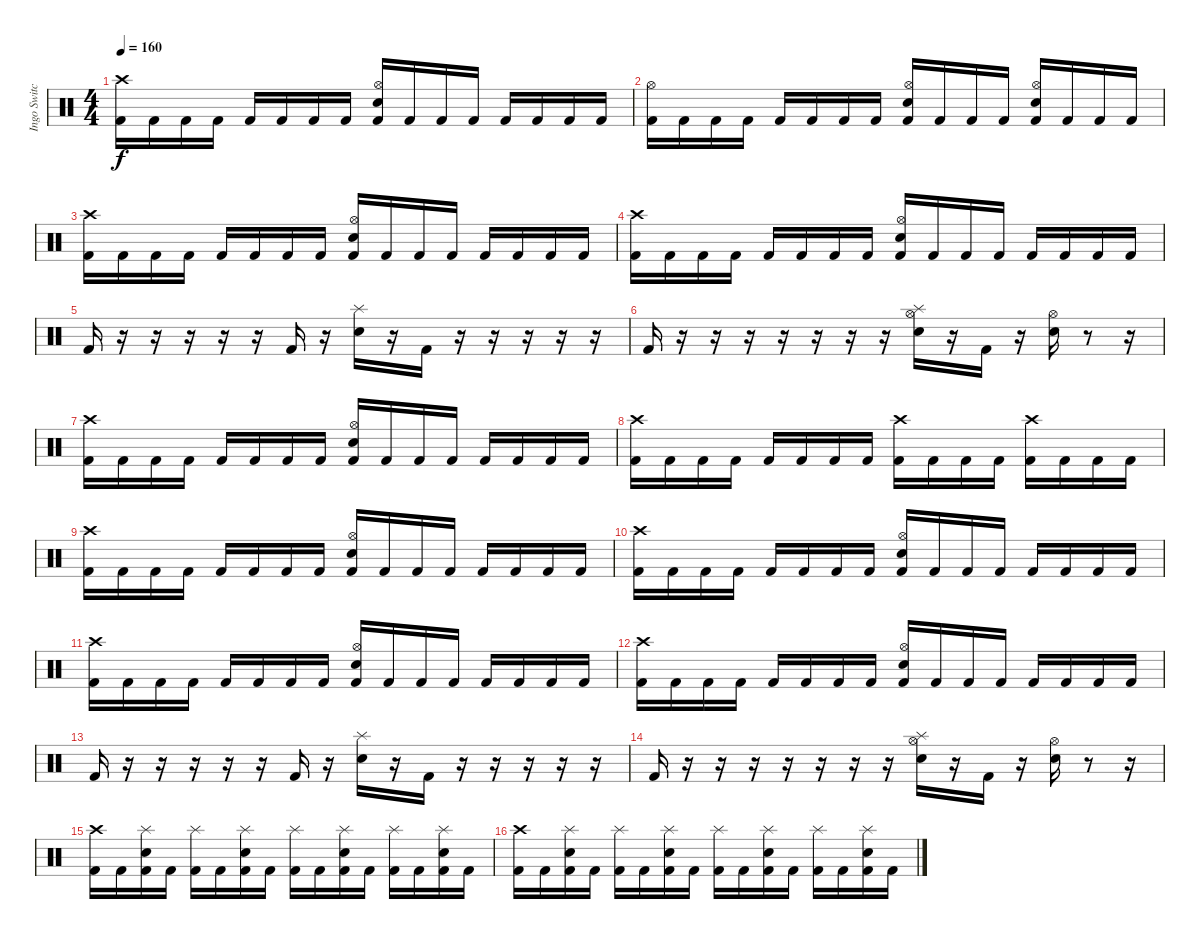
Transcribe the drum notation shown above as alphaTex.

\track ("Ingo Switchenberg" "Ingo Switc") {instrument percussion}
\staff {score}
\articulation defaults
\ts (4 4)
\tempo 160
\clef neutral
\ks c
("Crash high (hit)" "Kick (hit) 2").16{dy f} "Kick (hit) 2".16 "Kick (hit) 2".16 "Kick (hit) 2".16 "Kick (hit) 2".16 "Kick (hit) 2".16 "Kick (hit) 2".16 "Kick (hit) 2".16 ("Hi-Hat (open)" "Snare (hit) 2" "Kick (hit) 2").16 "Kick (hit) 2".16 "Kick (hit) 2".16 "Kick (hit) 2".16 "Kick (hit) 2".16 "Kick (hit) 2".16 "Kick (hit) 2".16 "Kick (hit) 2".16 |
("Hi-Hat (open)" "Kick (hit) 2").16 "Kick (hit) 2".16 "Kick (hit) 2".16 "Kick (hit) 2".16 "Kick (hit) 2".16 "Kick (hit) 2".16 "Kick (hit) 2".16 "Kick (hit) 2".16 ("Hi-Hat (open)" "Snare (hit) 2" "Kick (hit) 2").16 "Kick (hit) 2".16 "Kick (hit) 2".16 "Kick (hit) 2".16 ("Hi-Hat (open)" "Kick (hit) 2" "Snare (hit) 2").16 "Kick (hit) 2".16 "Kick (hit) 2".16 "Kick (hit) 2".16 |
("Crash high (hit)" "Kick (hit) 2").16 "Kick (hit) 2".16 "Kick (hit) 2".16 "Kick (hit) 2".16 "Kick (hit) 2".16 "Kick (hit) 2".16 "Kick (hit) 2".16 "Kick (hit) 2".16 ("Hi-Hat (open)" "Snare (hit) 2" "Kick (hit) 2").16 "Kick (hit) 2".16 "Kick (hit) 2".16 "Kick (hit) 2".16 "Kick (hit) 2".16 "Kick (hit) 2".16 "Kick (hit) 2".16 "Kick (hit) 2".16 |
("Crash high (hit)" "Kick (hit) 2").16 "Kick (hit) 2".16 "Kick (hit) 2".16 "Kick (hit) 2".16 "Kick (hit) 2".16 "Kick (hit) 2".16 "Kick (hit) 2".16 "Kick (hit) 2".16 ("Hi-Hat (open)" "Snare (hit) 2" "Kick (hit) 2").16 "Kick (hit) 2".16 "Kick (hit) 2".16 "Kick (hit) 2".16 "Kick (hit) 2".16 "Kick (hit) 2".16 "Kick (hit) 2".16 "Kick (hit) 2".16 |
"Kick (hit) 2".16 r.16 r.16 r.16 r.16 r.16 "Kick (hit) 2".16 r.16 ("Snare (hit) 2" "Splash (hit)").16 r.16 "Kick (hit) 2".16 r.16 r.16 r.16 r.16 r.16 |
"Kick (hit) 2".16 r.16 r.16 r.16 r.16 r.16 r.16 r.16 ("Hi-Hat (open)" "Snare (hit) 2" "Splash (hit)").16 r.16 "Kick (hit) 2".16 r.16 ("Hi-Hat (open)" "Snare (hit) 2").16 r.8 r.16 |
("Crash high (hit)" "Kick (hit) 2").16 "Kick (hit) 2".16 "Kick (hit) 2".16 "Kick (hit) 2".16 "Kick (hit) 2".16 "Kick (hit) 2".16 "Kick (hit) 2".16 "Kick (hit) 2".16 ("Hi-Hat (open)" "Snare (hit) 2" "Kick (hit) 2").16 "Kick (hit) 2".16 "Kick (hit) 2".16 "Kick (hit) 2".16 "Kick (hit) 2".16 "Kick (hit) 2".16 "Kick (hit) 2".16 "Kick (hit) 2".16 |
("Kick (hit) 2" "Crash high (hit)").16 "Kick (hit) 2".16 "Kick (hit) 2".16 "Kick (hit) 2".16 "Kick (hit) 2".16 "Kick (hit) 2".16 "Kick (hit) 2".16 "Kick (hit) 2".16 ("Kick (hit) 2" "Crash high (hit)").16 "Kick (hit) 2".16 "Kick (hit) 2".16 "Kick (hit) 2".16 ("Kick (hit) 2" "Crash high (hit)").16 "Kick (hit) 2".16 "Kick (hit) 2".16 "Kick (hit) 2".16 |
("Crash high (hit)" "Kick (hit) 2").16 "Kick (hit) 2".16 "Kick (hit) 2".16 "Kick (hit) 2".16 "Kick (hit) 2".16 "Kick (hit) 2".16 "Kick (hit) 2".16 "Kick (hit) 2".16 ("Hi-Hat (open)" "Snare (hit) 2" "Kick (hit) 2").16 "Kick (hit) 2".16 "Kick (hit) 2".16 "Kick (hit) 2".16 "Kick (hit) 2".16 "Kick (hit) 2".16 "Kick (hit) 2".16 "Kick (hit) 2".16 |
("Crash high (hit)" "Kick (hit) 2").16 "Kick (hit) 2".16 "Kick (hit) 2".16 "Kick (hit) 2".16 "Kick (hit) 2".16 "Kick (hit) 2".16 "Kick (hit) 2".16 "Kick (hit) 2".16 ("Hi-Hat (open)" "Snare (hit) 2" "Kick (hit) 2").16 "Kick (hit) 2".16 "Kick (hit) 2".16 "Kick (hit) 2".16 "Kick (hit) 2".16 "Kick (hit) 2".16 "Kick (hit) 2".16 "Kick (hit) 2".16 |
("Crash high (hit)" "Kick (hit) 2").16 "Kick (hit) 2".16 "Kick (hit) 2".16 "Kick (hit) 2".16 "Kick (hit) 2".16 "Kick (hit) 2".16 "Kick (hit) 2".16 "Kick (hit) 2".16 ("Hi-Hat (open)" "Snare (hit) 2" "Kick (hit) 2").16 "Kick (hit) 2".16 "Kick (hit) 2".16 "Kick (hit) 2".16 "Kick (hit) 2".16 "Kick (hit) 2".16 "Kick (hit) 2".16 "Kick (hit) 2".16 |
("Crash high (hit)" "Kick (hit) 2").16 "Kick (hit) 2".16 "Kick (hit) 2".16 "Kick (hit) 2".16 "Kick (hit) 2".16 "Kick (hit) 2".16 "Kick (hit) 2".16 "Kick (hit) 2".16 ("Hi-Hat (open)" "Snare (hit) 2" "Kick (hit) 2").16 "Kick (hit) 2".16 "Kick (hit) 2".16 "Kick (hit) 2".16 "Kick (hit) 2".16 "Kick (hit) 2".16 "Kick (hit) 2".16 "Kick (hit) 2".16 |
"Kick (hit) 2".16 r.16 r.16 r.16 r.16 r.16 "Kick (hit) 2".16 r.16 ("Snare (hit) 2" "Splash (hit)").16 r.16 "Kick (hit) 2".16 r.16 r.16 r.16 r.16 r.16 |
"Kick (hit) 2".16 r.16 r.16 r.16 r.16 r.16 r.16 r.16 ("Hi-Hat (open)" "Snare (hit) 2" "Splash (hit)").16 r.16 "Kick (hit) 2".16 r.16 ("Hi-Hat (open)" "Snare (hit) 2").16 r.8 r.16 |
("Crash high (hit)" "Kick (hit) 2").16 "Kick (hit) 2".16 ("Snare (hit) 2" "Kick (hit) 2" "Splash (hit)").16 "Kick (hit) 2".16 ("Kick (hit) 2" "Splash (hit)").16 "Kick (hit) 2".16 ("Snare (hit) 2" "Kick (hit) 2" "Splash (hit)").16 "Kick (hit) 2".16 ("Kick (hit) 2" "Splash (hit)").16 "Kick (hit) 2".16 ("Snare (hit) 2" "Kick (hit) 2" "Splash (hit)").16 "Kick (hit) 2".16 ("Kick (hit) 2" "Splash (hit)").16 "Kick (hit) 2".16 ("Snare (hit) 2" "Kick (hit) 2" "Splash (hit)").16 "Kick (hit) 2".16 |
("Crash high (hit)" "Kick (hit) 2").16 "Kick (hit) 2".16 ("Snare (hit) 2" "Kick (hit) 2" "Splash (hit)").16 "Kick (hit) 2".16 ("Kick (hit) 2" "Splash (hit)").16 "Kick (hit) 2".16 ("Snare (hit) 2" "Kick (hit) 2" "Splash (hit)").16 "Kick (hit) 2".16 ("Kick (hit) 2" "Splash (hit)").16 "Kick (hit) 2".16 ("Snare (hit) 2" "Kick (hit) 2" "Splash (hit)").16 "Kick (hit) 2".16 ("Kick (hit) 2" "Splash (hit)").16 "Kick (hit) 2".16 ("Snare (hit) 2" "Kick (hit) 2" "Splash (hit)").16 "Kick (hit) 2".16
